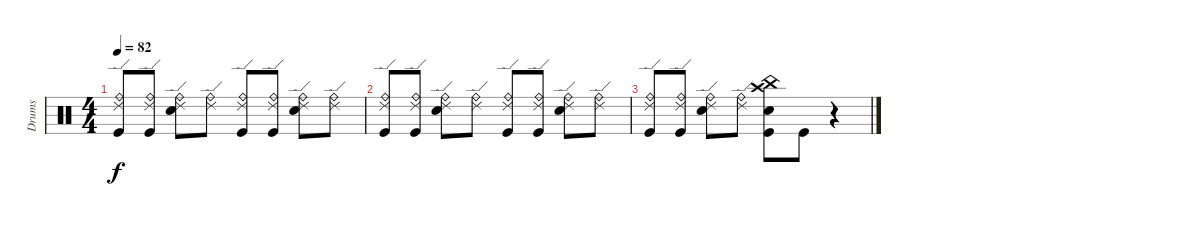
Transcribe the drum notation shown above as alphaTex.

\track ("Drums" "Drums") {instrument percussion}
\staff {score}
\articulation defaults
\ts (4 4)
\tempo 82
\clef neutral
\ks c
("Ride (edge) 2" "Ride (bell)" "Kick (hit)").8{dy f} ("Kick (hit)" "Ride (bell)" "Ride (edge) 2").8 ("Snare (hit) 2" "Ride (bell)" "Ride (edge) 2").8 ("Ride (bell)" "Ride (edge) 2").8 ("Kick (hit)" "Ride (bell)" "Ride (edge) 2").8 ("Kick (hit)" "Ride (bell)" "Ride (edge) 2").8 ("Snare (hit) 2" "Ride (bell)" "Ride (edge) 2").8 ("Ride (bell)" "Ride (edge) 2").8 |
("Ride (edge) 2" "Ride (bell)" "Kick (hit)").8 ("Kick (hit)" "Ride (bell)" "Ride (edge) 2").8 ("Snare (hit) 2" "Ride (bell)" "Ride (edge) 2").8 ("Ride (bell)" "Ride (edge) 2").8 ("Kick (hit)" "Ride (bell)" "Ride (edge) 2").8 ("Kick (hit)" "Ride (bell)" "Ride (edge) 2").8 ("Snare (hit) 2" "Ride (bell)" "Ride (edge) 2").8 ("Ride (bell)" "Ride (edge) 2").8 |
("Ride (edge) 2" "Ride (bell)" "Kick (hit)").8 ("Kick (hit)" "Ride (bell)" "Ride (edge) 2").8 ("Snare (hit) 2" "Ride (bell)" "Ride (edge) 2").8 ("Ride (bell)" "Ride (edge) 2").8 ("Kick (hit)" "China (hit)" "Crash high (hit)" "Snare (hit) 2").8 "Kick (hit)".8 r.4
